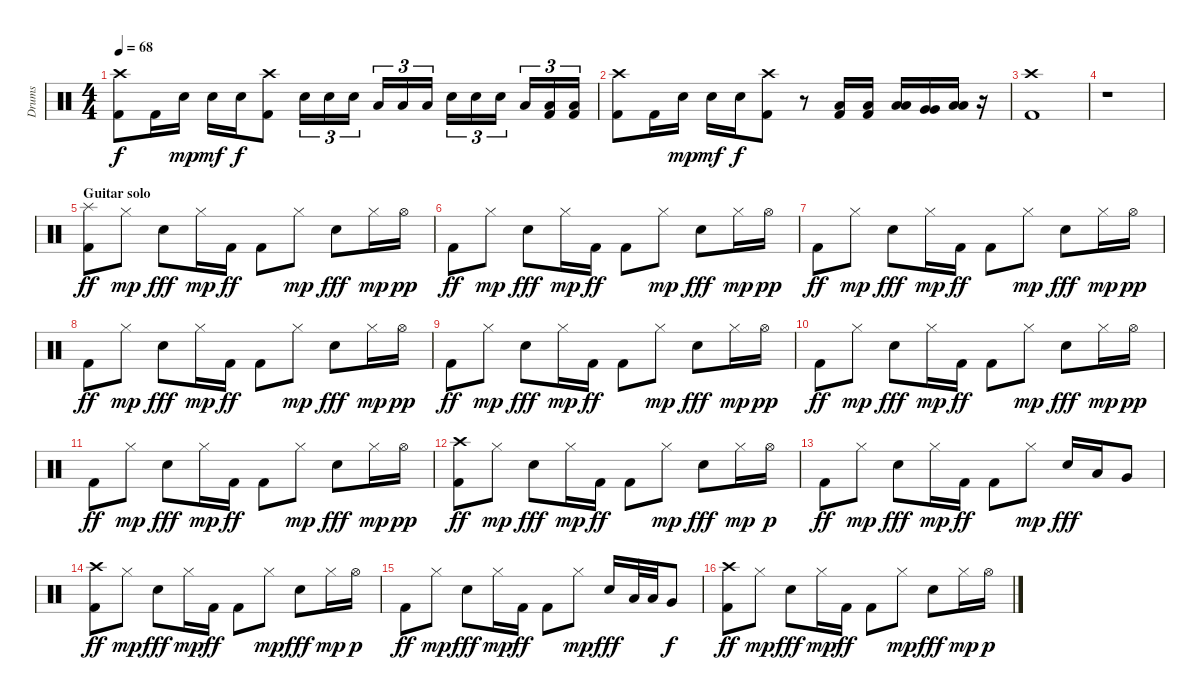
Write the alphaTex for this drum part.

\track ("Drums" "Drums") {instrument percussion}
\staff {score}
\articulation defaults
\ts (4 4)
\tempo 68
\clef neutral
\ks c
("Crash high (hit)" "Kick (hit) 2").8{dy f} "Kick (hit) 2".16 "Electric Snare (hit)".16{dy mp} "Electric Snare (hit)".16{dy mf} "Electric Snare (hit)".16{dy f} ("Crash high (hit)" "Kick (hit) 2").8 "Electric Snare (hit)".16{tu (3 2)} "Electric Snare (hit)".16{tu (3 2)} "Electric Snare (hit)".16{tu (3 2)} "Low Tom (hit)".16{tu (3 2)} "Low Tom (hit)".16{tu (3 2)} "Low Tom (hit)".16{tu (3 2)} "Electric Snare (hit)".16{tu (3 2)} "Electric Snare (hit)".16{tu (3 2)} "Electric Snare (hit)".16{tu (3 2)} "Low Tom (hit)".16{tu (3 2)} ("Low Tom (hit)" "Kick (hit) 2").16{tu (3 2)} ("Low Tom (hit)" "Kick (hit) 2").16{tu (3 2)} |
("Crash high (hit)" "Kick (hit) 2").8 "Kick (hit) 2".16 "Electric Snare (hit)".16{dy mp} "Electric Snare (hit)".16{dy mf} "Electric Snare (hit)".16{dy f} ("Crash high (hit)" "Kick (hit) 2").8 r.8 ("Low Floor Tom (hit)" "Kick (hit) 2").16 ("Low Floor Tom (hit)" "Kick (hit) 2").16 ("Low Tom (hit)" "Low Tom (hit)").16 ("Very Low Tom (hit)" "Very Low Tom (hit)").16 ("Low Floor Tom (hit)" "Low Floor Tom (hit)").16 r.16 |
("Crash high (hit)" "Kick (hit) 2").1 |
r.1 |
\section ("" "Guitar solo")
("Splash (hit)" "Kick (hit) 2").8{dy ff} "Hi-Hat (closed)".8{dy mp} "Electric Snare (hit)".8{dy fff} "Hi-Hat (closed)".16{dy mp} "Kick (hit) 2".16{dy ff} "Kick (hit) 2".8 "Hi-Hat (closed)".8{dy mp} "Electric Snare (hit)".8{dy fff} "Hi-Hat (closed)".16{dy mp} "Hi-Hat (open)".16{dy pp} |
"Kick (hit) 2".8{dy ff} "Hi-Hat (closed)".8{dy mp} "Electric Snare (hit)".8{dy fff} "Hi-Hat (closed)".16{dy mp} "Kick (hit) 2".16{dy ff} "Kick (hit) 2".8 "Hi-Hat (closed)".8{dy mp} "Electric Snare (hit)".8{dy fff} "Hi-Hat (closed)".16{dy mp} "Hi-Hat (open)".16{dy pp} |
"Kick (hit) 2".8{dy ff} "Hi-Hat (closed)".8{dy mp} "Electric Snare (hit)".8{dy fff} "Hi-Hat (closed)".16{dy mp} "Kick (hit) 2".16{dy ff} "Kick (hit) 2".8 "Hi-Hat (closed)".8{dy mp} "Electric Snare (hit)".8{dy fff} "Hi-Hat (closed)".16{dy mp} "Hi-Hat (open)".16{dy pp} |
"Kick (hit) 2".8{dy ff} "Hi-Hat (closed)".8{dy mp} "Electric Snare (hit)".8{dy fff} "Hi-Hat (closed)".16{dy mp} "Kick (hit) 2".16{dy ff} "Kick (hit) 2".8 "Hi-Hat (closed)".8{dy mp} "Electric Snare (hit)".8{dy fff} "Hi-Hat (closed)".16{dy mp} "Hi-Hat (open)".16{dy pp} |
"Kick (hit) 2".8{dy ff} "Hi-Hat (closed)".8{dy mp} "Electric Snare (hit)".8{dy fff} "Hi-Hat (closed)".16{dy mp} "Kick (hit) 2".16{dy ff} "Kick (hit) 2".8 "Hi-Hat (closed)".8{dy mp} "Electric Snare (hit)".8{dy fff} "Hi-Hat (closed)".16{dy mp} "Hi-Hat (open)".16{dy pp} |
"Kick (hit) 2".8{dy ff} "Hi-Hat (closed)".8{dy mp} "Electric Snare (hit)".8{dy fff} "Hi-Hat (closed)".16{dy mp} "Kick (hit) 2".16{dy ff} "Kick (hit) 2".8 "Hi-Hat (closed)".8{dy mp} "Electric Snare (hit)".8{dy fff} "Hi-Hat (closed)".16{dy mp} "Hi-Hat (open)".16{dy pp} |
"Kick (hit) 2".8{dy ff} "Hi-Hat (closed)".8{dy mp} "Electric Snare (hit)".8{dy fff} "Hi-Hat (closed)".16{dy mp} "Kick (hit) 2".16{dy ff} "Kick (hit) 2".8 "Hi-Hat (closed)".8{dy mp} "Electric Snare (hit)".8{dy fff} "Hi-Hat (closed)".16{dy mp} "Hi-Hat (open)".16{dy pp} |
("Crash high (hit)" "Kick (hit) 2").8{dy ff} "Hi-Hat (closed)".8{dy mp} "Electric Snare (hit)".8{dy fff} "Hi-Hat (closed)".16{dy mp} "Kick (hit) 2".16{dy ff} "Kick (hit) 2".8 "Hi-Hat (closed)".8{dy mp} "Electric Snare (hit)".8{dy fff} "Hi-Hat (closed)".16{dy mp} "Hi-Hat (open)".16{dy p} |
"Kick (hit) 2".8{dy ff} "Hi-Hat (closed)".8{dy mp} "Electric Snare (hit)".8{dy fff} "Hi-Hat (closed)".16{dy mp} "Kick (hit) 2".16{dy ff} "Kick (hit) 2".8 "Hi-Hat (closed)".8{dy mp} "Electric Snare (hit)".16{dy fff} "Low Tom (hit)".16 "Very Low Tom (hit)".8 |
("Crash high (hit)" "Kick (hit) 2").8{dy ff} "Hi-Hat (closed)".8{dy mp} "Electric Snare (hit)".8{dy fff} "Hi-Hat (closed)".16{dy mp} "Kick (hit) 2".16{dy ff} "Kick (hit) 2".8 "Hi-Hat (closed)".8{dy mp} "Electric Snare (hit)".8{dy fff} "Hi-Hat (closed)".16{dy mp} "Hi-Hat (open)".16{dy p} |
"Kick (hit) 2".8{dy ff} "Hi-Hat (closed)".8{dy mp} "Electric Snare (hit)".8{dy fff} "Hi-Hat (closed)".16{dy mp} "Kick (hit) 2".16{dy ff} "Kick (hit) 2".8 "Hi-Hat (closed)".8{dy mp} "Electric Snare (hit)".16{dy fff} "Low Tom (hit)".32 "Low Tom (hit)".32 "Very Low Tom (hit)".8{dy f} |
("Crash high (hit)" "Kick (hit) 2").8{dy ff} "Hi-Hat (closed)".8{dy mp} "Electric Snare (hit)".8{dy fff} "Hi-Hat (closed)".16{dy mp} "Kick (hit) 2".16{dy ff} "Kick (hit) 2".8 "Hi-Hat (closed)".8{dy mp} "Electric Snare (hit)".8{dy fff} "Hi-Hat (closed)".16{dy mp} "Hi-Hat (open)".16{dy p}
